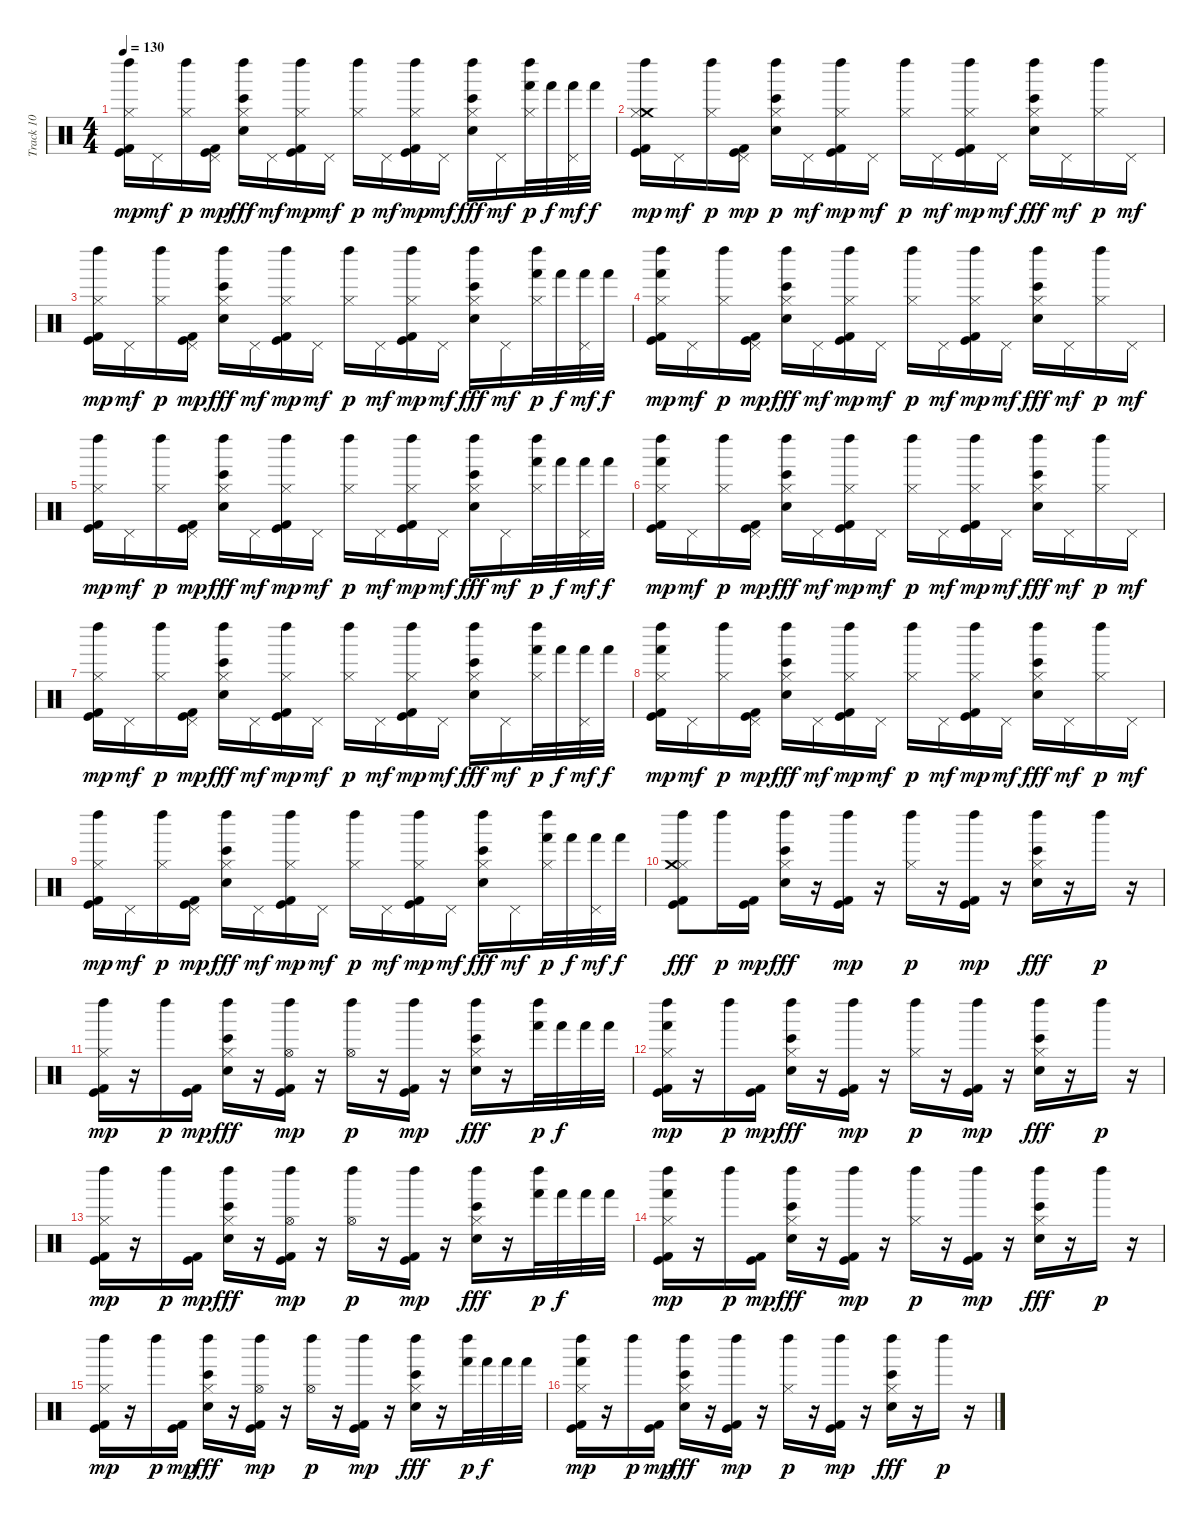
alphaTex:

\track ("Track 10" "Track 10") {instrument percussion}
\staff {score}
\articulation defaults
\ts (4 4)
\tempo 130
\clef neutral
\ks c
("Hi-Hat (closed)" "Left Maraca (hit)" "Kick (hit) 2" "Kick (hit)").16{dy mp} "Pedal Hi-Hat (hit)".16{dy mf} ("Hi-Hat (closed)" "Left Maraca (hit)").16{dy p} ("Pedal Hi-Hat (hit)" "Kick (hit) 2" "Kick (hit)").16{dy mp} ("Hi-Hat (closed)" "Left Maraca (hit)" "Hand Clap (hit)" "Bongo High (hit)").16{dy fff} "Pedal Hi-Hat (hit)".16{dy mf} ("Hi-Hat (closed)" "Left Maraca (hit)" "Kick (hit) 2" "Kick (hit)").16{dy mp} "Pedal Hi-Hat (hit)".16{dy mf} ("Hi-Hat (closed)" "Left Maraca (hit)").16{dy p} "Pedal Hi-Hat (hit)".16{dy mf} ("Hi-Hat (closed)" "Left Maraca (hit)" "Kick (hit) 2" "Kick (hit)").16{dy mp} "Pedal Hi-Hat (hit)".16{dy mf} ("Hi-Hat (closed)" "Left Maraca (hit)" "Hand Clap (hit)" "Bongo High (hit)").16{dy fff} "Pedal Hi-Hat (hit)".16{dy mf} ("Hi-Hat (closed)" "Hand (hit)" "Left Maraca (hit)").32{dy p} "Hand (hit)".32{dy f} ("Pedal Hi-Hat (hit)" "Hand (hit)").32{dy mf} "Hand (hit)".32{dy f} |
("Crash medium (hit)" "Hi-Hat (closed)" "Left Maraca (hit)" "Kick (hit) 2" "Kick (hit)").16{dy mp} "Pedal Hi-Hat (hit)".16{dy mf} ("Hi-Hat (closed)" "Left Maraca (hit)").16{dy p} ("Pedal Hi-Hat (hit)" "Kick (hit) 2" "Kick (hit)").16{dy mp} ("Hand Clap (hit)" "Bongo High (hit)" "Hi-Hat (closed)" "Left Maraca (hit)").16{dy p} "Pedal Hi-Hat (hit)".16{dy mf} ("Hi-Hat (closed)" "Left Maraca (hit)" "Kick (hit) 2" "Kick (hit)").16{dy mp} "Pedal Hi-Hat (hit)".16{dy mf} ("Hi-Hat (closed)" "Left Maraca (hit)").16{dy p} "Pedal Hi-Hat (hit)".16{dy mf} ("Hi-Hat (closed)" "Left Maraca (hit)" "Kick (hit) 2" "Kick (hit)").16{dy mp} "Pedal Hi-Hat (hit)".16{dy mf} ("Hi-Hat (closed)" "Left Maraca (hit)" "Hand Clap (hit)" "Bongo High (hit)").16{dy fff} "Pedal Hi-Hat (hit)".16{dy mf} ("Hi-Hat (closed)" "Left Maraca (hit)").16{dy p} "Pedal Hi-Hat (hit)".16{dy mf} |
("Hi-Hat (closed)" "Left Maraca (hit)" "Kick (hit) 2" "Kick (hit)").16{dy mp} "Pedal Hi-Hat (hit)".16{dy mf} ("Hi-Hat (closed)" "Left Maraca (hit)").16{dy p} ("Pedal Hi-Hat (hit)" "Kick (hit) 2" "Kick (hit)").16{dy mp} ("Hi-Hat (closed)" "Left Maraca (hit)" "Hand Clap (hit)" "Bongo High (hit)").16{dy fff} "Pedal Hi-Hat (hit)".16{dy mf} ("Hi-Hat (closed)" "Left Maraca (hit)" "Kick (hit) 2" "Kick (hit)").16{dy mp} "Pedal Hi-Hat (hit)".16{dy mf} ("Hi-Hat (closed)" "Left Maraca (hit)").16{dy p} "Pedal Hi-Hat (hit)".16{dy mf} ("Hi-Hat (closed)" "Left Maraca (hit)" "Kick (hit) 2" "Kick (hit)").16{dy mp} "Pedal Hi-Hat (hit)".16{dy mf} ("Hi-Hat (closed)" "Left Maraca (hit)" "Hand Clap (hit)" "Bongo High (hit)").16{dy fff} "Pedal Hi-Hat (hit)".16{dy mf} ("Hi-Hat (closed)" "Hand (hit)" "Left Maraca (hit)").32{dy p} "Hand (hit)".32{dy f} ("Pedal Hi-Hat (hit)" "Hand (hit)").32{dy mf} "Hand (hit)".32{dy f} |
("Hand (hit)" "Hi-Hat (closed)" "Left Maraca (hit)" "Kick (hit) 2" "Kick (hit)").16{dy mp} "Pedal Hi-Hat (hit)".16{dy mf} ("Hi-Hat (closed)" "Left Maraca (hit)").16{dy p} ("Pedal Hi-Hat (hit)" "Kick (hit) 2" "Kick (hit)").16{dy mp} ("Hi-Hat (closed)" "Left Maraca (hit)" "Hand Clap (hit)" "Bongo High (hit)").16{dy fff} "Pedal Hi-Hat (hit)".16{dy mf} ("Hi-Hat (closed)" "Left Maraca (hit)" "Kick (hit) 2" "Kick (hit)").16{dy mp} "Pedal Hi-Hat (hit)".16{dy mf} ("Hi-Hat (closed)" "Left Maraca (hit)").16{dy p} "Pedal Hi-Hat (hit)".16{dy mf} ("Hi-Hat (closed)" "Left Maraca (hit)" "Kick (hit) 2" "Kick (hit)").16{dy mp} "Pedal Hi-Hat (hit)".16{dy mf} ("Hi-Hat (closed)" "Left Maraca (hit)" "Hand Clap (hit)" "Bongo High (hit)").16{dy fff} "Pedal Hi-Hat (hit)".16{dy mf} ("Hi-Hat (closed)" "Left Maraca (hit)").16{dy p} "Pedal Hi-Hat (hit)".16{dy mf} |
("Hi-Hat (closed)" "Left Maraca (hit)" "Kick (hit) 2" "Kick (hit)").16{dy mp} "Pedal Hi-Hat (hit)".16{dy mf} ("Hi-Hat (closed)" "Left Maraca (hit)").16{dy p} ("Pedal Hi-Hat (hit)" "Kick (hit) 2" "Kick (hit)").16{dy mp} ("Hi-Hat (closed)" "Left Maraca (hit)" "Hand Clap (hit)" "Bongo High (hit)").16{dy fff} "Pedal Hi-Hat (hit)".16{dy mf} ("Hi-Hat (closed)" "Left Maraca (hit)" "Kick (hit) 2" "Kick (hit)").16{dy mp} "Pedal Hi-Hat (hit)".16{dy mf} ("Hi-Hat (closed)" "Left Maraca (hit)").16{dy p} "Pedal Hi-Hat (hit)".16{dy mf} ("Hi-Hat (closed)" "Left Maraca (hit)" "Kick (hit) 2" "Kick (hit)").16{dy mp} "Pedal Hi-Hat (hit)".16{dy mf} ("Hi-Hat (closed)" "Left Maraca (hit)" "Hand Clap (hit)" "Bongo High (hit)").16{dy fff} "Pedal Hi-Hat (hit)".16{dy mf} ("Hi-Hat (closed)" "Hand (hit)" "Left Maraca (hit)").32{dy p} "Hand (hit)".32{dy f} ("Pedal Hi-Hat (hit)" "Hand (hit)").32{dy mf} "Hand (hit)".32{dy f} |
("Hand (hit)" "Hi-Hat (closed)" "Left Maraca (hit)" "Kick (hit) 2" "Kick (hit)").16{dy mp} "Pedal Hi-Hat (hit)".16{dy mf} ("Hi-Hat (closed)" "Left Maraca (hit)").16{dy p} ("Pedal Hi-Hat (hit)" "Kick (hit) 2" "Kick (hit)").16{dy mp} ("Hi-Hat (closed)" "Left Maraca (hit)" "Hand Clap (hit)" "Bongo High (hit)").16{dy fff} "Pedal Hi-Hat (hit)".16{dy mf} ("Hi-Hat (closed)" "Left Maraca (hit)" "Kick (hit) 2" "Kick (hit)").16{dy mp} "Pedal Hi-Hat (hit)".16{dy mf} ("Hi-Hat (closed)" "Left Maraca (hit)").16{dy p} "Pedal Hi-Hat (hit)".16{dy mf} ("Hi-Hat (closed)" "Left Maraca (hit)" "Kick (hit) 2" "Kick (hit)").16{dy mp} "Pedal Hi-Hat (hit)".16{dy mf} ("Hi-Hat (closed)" "Left Maraca (hit)" "Hand Clap (hit)" "Bongo High (hit)").16{dy fff} "Pedal Hi-Hat (hit)".16{dy mf} ("Hi-Hat (closed)" "Left Maraca (hit)").16{dy p} "Pedal Hi-Hat (hit)".16{dy mf} |
("Hi-Hat (closed)" "Left Maraca (hit)" "Kick (hit) 2" "Kick (hit)").16{dy mp} "Pedal Hi-Hat (hit)".16{dy mf} ("Hi-Hat (closed)" "Left Maraca (hit)").16{dy p} ("Pedal Hi-Hat (hit)" "Kick (hit) 2" "Kick (hit)").16{dy mp} ("Hi-Hat (closed)" "Left Maraca (hit)" "Hand Clap (hit)" "Bongo High (hit)").16{dy fff} "Pedal Hi-Hat (hit)".16{dy mf} ("Hi-Hat (closed)" "Left Maraca (hit)" "Kick (hit) 2" "Kick (hit)").16{dy mp} "Pedal Hi-Hat (hit)".16{dy mf} ("Hi-Hat (closed)" "Left Maraca (hit)").16{dy p} "Pedal Hi-Hat (hit)".16{dy mf} ("Hi-Hat (closed)" "Left Maraca (hit)" "Kick (hit) 2" "Kick (hit)").16{dy mp} "Pedal Hi-Hat (hit)".16{dy mf} ("Hi-Hat (closed)" "Left Maraca (hit)" "Hand Clap (hit)" "Bongo High (hit)").16{dy fff} "Pedal Hi-Hat (hit)".16{dy mf} ("Hi-Hat (closed)" "Hand (hit)" "Left Maraca (hit)").32{dy p} "Hand (hit)".32{dy f} ("Pedal Hi-Hat (hit)" "Hand (hit)").32{dy mf} "Hand (hit)".32{dy f} |
("Hand (hit)" "Hi-Hat (closed)" "Left Maraca (hit)" "Kick (hit) 2" "Kick (hit)").16{dy mp} "Pedal Hi-Hat (hit)".16{dy mf} ("Hi-Hat (closed)" "Left Maraca (hit)").16{dy p} ("Pedal Hi-Hat (hit)" "Kick (hit) 2" "Kick (hit)").16{dy mp} ("Hi-Hat (closed)" "Left Maraca (hit)" "Hand Clap (hit)" "Bongo High (hit)").16{dy fff} "Pedal Hi-Hat (hit)".16{dy mf} ("Hi-Hat (closed)" "Left Maraca (hit)" "Kick (hit) 2" "Kick (hit)").16{dy mp} "Pedal Hi-Hat (hit)".16{dy mf} ("Hi-Hat (closed)" "Left Maraca (hit)").16{dy p} "Pedal Hi-Hat (hit)".16{dy mf} ("Hi-Hat (closed)" "Left Maraca (hit)" "Kick (hit) 2" "Kick (hit)").16{dy mp} "Pedal Hi-Hat (hit)".16{dy mf} ("Hi-Hat (closed)" "Left Maraca (hit)" "Hand Clap (hit)" "Bongo High (hit)").16{dy fff} "Pedal Hi-Hat (hit)".16{dy mf} ("Hi-Hat (closed)" "Left Maraca (hit)").16{dy p} "Pedal Hi-Hat (hit)".16{dy mf} |
("Hi-Hat (closed)" "Left Maraca (hit)" "Kick (hit) 2" "Kick (hit)").16{dy mp} "Pedal Hi-Hat (hit)".16{dy mf} ("Hi-Hat (closed)" "Left Maraca (hit)").16{dy p} ("Pedal Hi-Hat (hit)" "Kick (hit) 2" "Kick (hit)").16{dy mp} ("Hi-Hat (closed)" "Left Maraca (hit)" "Hand Clap (hit)" "Bongo High (hit)").16{dy fff} "Pedal Hi-Hat (hit)".16{dy mf} ("Hi-Hat (closed)" "Left Maraca (hit)" "Kick (hit) 2" "Kick (hit)").16{dy mp} "Pedal Hi-Hat (hit)".16{dy mf} ("Hi-Hat (closed)" "Left Maraca (hit)").16{dy p} "Pedal Hi-Hat (hit)".16{dy mf} ("Hi-Hat (closed)" "Left Maraca (hit)" "Kick (hit) 2" "Kick (hit)").16{dy mp} "Pedal Hi-Hat (hit)".16{dy mf} ("Hi-Hat (closed)" "Left Maraca (hit)" "Hand Clap (hit)" "Bongo High (hit)").16{dy fff} "Pedal Hi-Hat (hit)".16{dy mf} ("Hi-Hat (closed)" "Hand (hit)" "Left Maraca (hit)").32{dy p} "Hand (hit)".32{dy f} ("Pedal Hi-Hat (hit)" "Hand (hit)").32{dy mf} "Hand (hit)".32{dy f} |
("Hi-Hat (closed)" "Crash medium (hit)" "Kick (hit)" "Left Maraca (hit)" "Kick (hit) 2").8{dy fff} "Left Maraca (hit)".16{dy p} ("Kick (hit) 2" "Kick (hit)").16{dy mp} ("Left Maraca (hit)" "Hi-Hat (closed)" "Hand Clap (hit)" "Bongo High (hit)").16{dy fff} r.16 ("Left Maraca (hit)" "Kick (hit) 2" "Kick (hit)").16{dy mp} r.16 ("Hi-Hat (closed)" "Left Maraca (hit)").16{dy p} r.16 ("Left Maraca (hit)" "Kick (hit) 2" "Kick (hit)").16{dy mp} r.16 ("Hi-Hat (closed)" "Left Maraca (hit)" "Hand Clap (hit)" "Bongo High (hit)").16{dy fff} r.16 "Left Maraca (hit)".16{dy p} r.16 |
("Hi-Hat (closed)" "Left Maraca (hit)" "Kick (hit) 2" "Kick (hit)").16{dy mp} r.16 "Left Maraca (hit)".16{dy p} ("Kick (hit) 2" "Kick (hit)").16{dy mp} ("Hi-Hat (closed)" "Left Maraca (hit)" "Hand Clap (hit)" "Bongo High (hit)").16{dy fff} r.16 ("Hi-Hat (open)" "Left Maraca (hit)" "Kick (hit) 2" "Kick (hit)").16{dy mp} r.16 ("Hi-Hat (open)" "Left Maraca (hit)").16{dy p} r.16 ("Left Maraca (hit)" "Kick (hit) 2" "Kick (hit)").16{dy mp} r.16 ("Hi-Hat (closed)" "Left Maraca (hit)" "Hand Clap (hit)" "Bongo High (hit)").16{dy fff} r.16 ("Hand (hit)" "Left Maraca (hit)").32{dy p} "Hand (hit)".32{dy f} "Hand (hit)".32 "Hand (hit)".32 |
("Hand (hit)" "Hi-Hat (closed)" "Left Maraca (hit)" "Kick (hit) 2" "Kick (hit)").16{dy mp} r.16 "Left Maraca (hit)".16{dy p} ("Kick (hit) 2" "Kick (hit)").16{dy mp} ("Hi-Hat (closed)" "Left Maraca (hit)" "Hand Clap (hit)" "Bongo High (hit)").16{dy fff} r.16 ("Left Maraca (hit)" "Kick (hit) 2" "Kick (hit)").16{dy mp} r.16 ("Hi-Hat (closed)" "Left Maraca (hit)").16{dy p} r.16 ("Left Maraca (hit)" "Kick (hit) 2" "Kick (hit)").16{dy mp} r.16 ("Hi-Hat (closed)" "Left Maraca (hit)" "Hand Clap (hit)" "Bongo High (hit)").16{dy fff} r.16 "Left Maraca (hit)".16{dy p} r.16 |
("Hi-Hat (closed)" "Left Maraca (hit)" "Kick (hit) 2" "Kick (hit)").16{dy mp} r.16 "Left Maraca (hit)".16{dy p} ("Kick (hit) 2" "Kick (hit)").16{dy mp} ("Hi-Hat (closed)" "Left Maraca (hit)" "Hand Clap (hit)" "Bongo High (hit)").16{dy fff} r.16 ("Hi-Hat (open)" "Left Maraca (hit)" "Kick (hit) 2" "Kick (hit)").16{dy mp} r.16 ("Hi-Hat (open)" "Left Maraca (hit)").16{dy p} r.16 ("Left Maraca (hit)" "Kick (hit) 2" "Kick (hit)").16{dy mp} r.16 ("Hi-Hat (closed)" "Left Maraca (hit)" "Hand Clap (hit)" "Bongo High (hit)").16{dy fff} r.16 ("Hand (hit)" "Left Maraca (hit)").32{dy p} "Hand (hit)".32{dy f} "Hand (hit)".32 "Hand (hit)".32 |
("Hand (hit)" "Hi-Hat (closed)" "Left Maraca (hit)" "Kick (hit) 2" "Kick (hit)").16{dy mp} r.16 "Left Maraca (hit)".16{dy p} ("Kick (hit) 2" "Kick (hit)").16{dy mp} ("Hi-Hat (closed)" "Left Maraca (hit)" "Hand Clap (hit)" "Bongo High (hit)").16{dy fff} r.16 ("Left Maraca (hit)" "Kick (hit) 2" "Kick (hit)").16{dy mp} r.16 ("Hi-Hat (closed)" "Left Maraca (hit)").16{dy p} r.16 ("Left Maraca (hit)" "Kick (hit) 2" "Kick (hit)").16{dy mp} r.16 ("Hi-Hat (closed)" "Left Maraca (hit)" "Hand Clap (hit)" "Bongo High (hit)").16{dy fff} r.16 "Left Maraca (hit)".16{dy p} r.16 |
("Hi-Hat (closed)" "Left Maraca (hit)" "Kick (hit) 2" "Kick (hit)").16{dy mp} r.16 "Left Maraca (hit)".16{dy p} ("Kick (hit) 2" "Kick (hit)").16{dy mp} ("Hi-Hat (closed)" "Left Maraca (hit)" "Hand Clap (hit)" "Bongo High (hit)").16{dy fff} r.16 ("Hi-Hat (open)" "Left Maraca (hit)" "Kick (hit) 2" "Kick (hit)").16{dy mp} r.16 ("Hi-Hat (open)" "Left Maraca (hit)").16{dy p} r.16 ("Left Maraca (hit)" "Kick (hit) 2" "Kick (hit)").16{dy mp} r.16 ("Hi-Hat (closed)" "Left Maraca (hit)" "Hand Clap (hit)" "Bongo High (hit)").16{dy fff} r.16 ("Hand (hit)" "Left Maraca (hit)").32{dy p} "Hand (hit)".32{dy f} "Hand (hit)".32 "Hand (hit)".32 |
("Hand (hit)" "Hi-Hat (closed)" "Left Maraca (hit)" "Kick (hit) 2" "Kick (hit)").16{dy mp} r.16 "Left Maraca (hit)".16{dy p} ("Kick (hit) 2" "Kick (hit)").16{dy mp} ("Hi-Hat (closed)" "Left Maraca (hit)" "Hand Clap (hit)" "Bongo High (hit)").16{dy fff} r.16 ("Left Maraca (hit)" "Kick (hit) 2" "Kick (hit)").16{dy mp} r.16 ("Hi-Hat (closed)" "Left Maraca (hit)").16{dy p} r.16 ("Left Maraca (hit)" "Kick (hit) 2" "Kick (hit)").16{dy mp} r.16 ("Hi-Hat (closed)" "Left Maraca (hit)" "Hand Clap (hit)" "Bongo High (hit)").16{dy fff} r.16 "Left Maraca (hit)".16{dy p} r.16
